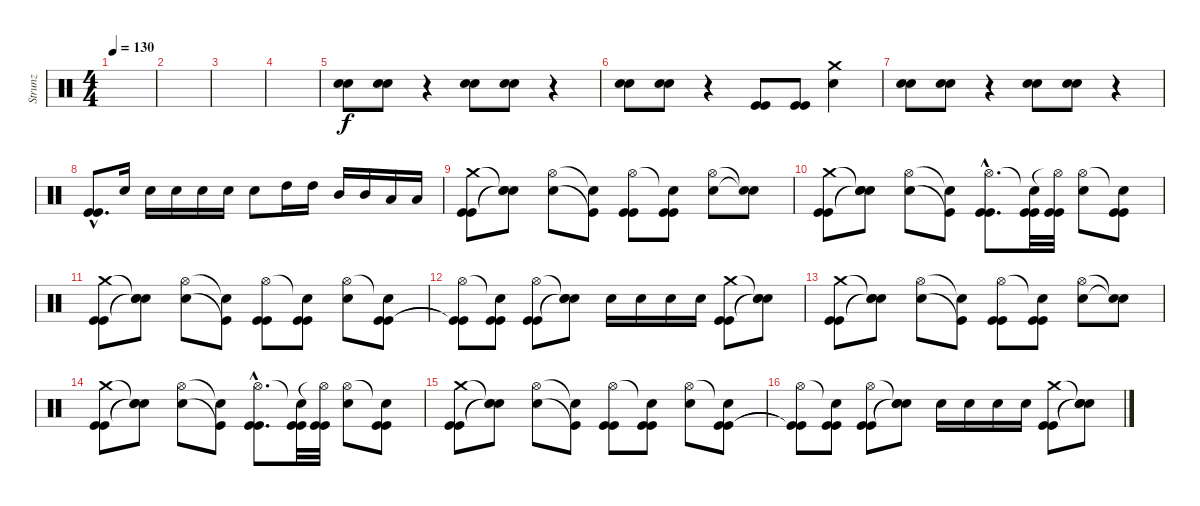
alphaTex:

\track ("Strunz" "Strunz") {instrument percussion}
\staff {score}
\articulation defaults
\ts (4 4)
\tempo 130
\clef neutral
\ks c
|
|
|
|
("Electric Snare (hit)" "Electric Snare (hit)").8 ("Electric Snare (hit)" "Electric Snare (hit)").8 r.4 ("Electric Snare (hit)" "Electric Snare (hit)").8 ("Electric Snare (hit)" "Electric Snare (hit)").8 r.4 |
("Electric Snare (hit)" "Electric Snare (hit)").8 ("Electric Snare (hit)" "Electric Snare (hit)").8 r.4 ("Kick (hit)" "Kick (hit)").8 ("Kick (hit)" "Kick (hit)").8 ("Crash medium (hit)" "Electric Snare (hit)").4 |
("Electric Snare (hit)" "Electric Snare (hit)").8 ("Electric Snare (hit)" "Electric Snare (hit)").8 r.4 ("Electric Snare (hit)" "Electric Snare (hit)").8 ("Electric Snare (hit)" "Electric Snare (hit)").8 r.4 |
("Kick (hit)"{hac} "Kick (hit)"{hac}).8{d} "Electric Snare (hit)".16 "Electric Snare (hit)".16 "Electric Snare (hit)".16 "Electric Snare (hit)".16 "Electric Snare (hit)".16 "Electric Snare (hit)".8 "High Tom (hit)".16 "High Tom (hit)".16 "Mid Tom (hit)".16 "Mid Tom (hit)".16 "Low Tom (hit)".16 "Low Tom (hit)".16 |
("Crash medium (hit)" "Kick (hit)" "Kick (hit)").8 ("Snare (hit)"{t} "Electric Snare (hit)"{t} "Snare (hit)"{t}).8 ("Hi-Hat (open)" "Electric Snare (hit)").8 ("Snare (hit)"{t} "Kick (hit)"{t}).8 ("Hi-Hat (open)" "Kick (hit)" "Kick (hit)").8 ("Snare (hit)"{t} "Kick (hit)" "Kick (hit)").8 ("Hi-Hat (open)" "Electric Snare (hit)").8 ("Snare (hit)"{t} "Snare (hit)"{t}).8 |
("Crash medium (hit)" "Kick (hit)" "Kick (hit)").8 ("Snare (hit)"{t} "Electric Snare (hit)"{t} "Snare (hit)"{t}).8 ("Hi-Hat (open)" "Electric Snare (hit)").8 ("Snare (hit)"{t} "Kick (hit)"{t}).8 ("Hi-Hat (open)"{hac} "Kick (hit)"{hac} "Kick (hit)"{hac}).8{d} ("Snare (hit)"{t} "Kick (hit)" "Kick (hit)").32 ("Hi-Hat (open)"{t} "Kick (hit)" "Kick (hit)").32 ("Hi-Hat (open)" "Electric Snare (hit)").8 ("Snare (hit)"{t} "Kick (hit)" "Kick (hit)").8 |
("Crash medium (hit)" "Kick (hit)" "Kick (hit)").8 ("Snare (hit)"{t} "Electric Snare (hit)"{t} "Snare (hit)"{t}).8 ("Hi-Hat (open)" "Electric Snare (hit)").8 ("Snare (hit)"{t} "Kick (hit)"{t}).8 ("Hi-Hat (open)" "Kick (hit)" "Kick (hit)").8 ("Snare (hit)"{t} "Kick (hit)" "Kick (hit)").8 ("Hi-Hat (open)" "Electric Snare (hit)").8 ("Snare (hit)"{t} "Kick (hit)" "Kick (hit)").8 |
("Hi-Hat (open)" "Kick (hit)"{t} "Kick (hit)"{t}).8 ("Snare (hit)"{t} "Kick (hit)" "Kick (hit)").8 ("Hi-Hat (open)" "Kick (hit)" "Kick (hit)").8 ("Snare (hit)"{t} "Snare (hit)"{t} "Snare (hit)"{t}).8 "Electric Snare (hit)".16 "Electric Snare (hit)".16 "Electric Snare (hit)".16 "Electric Snare (hit)".16 ("Crash medium (hit)" "Kick (hit)" "Kick (hit)").8 ("Snare (hit)"{t} "Snare (hit)"{t} "Snare (hit)"{t}).8 |
("Crash medium (hit)" "Kick (hit)" "Kick (hit)").8 ("Snare (hit)"{t} "Electric Snare (hit)"{t} "Snare (hit)"{t}).8 ("Hi-Hat (open)" "Electric Snare (hit)").8 ("Snare (hit)"{t} "Kick (hit)"{t}).8 ("Hi-Hat (open)" "Kick (hit)" "Kick (hit)").8 ("Snare (hit)"{t} "Kick (hit)" "Kick (hit)").8 ("Hi-Hat (open)" "Electric Snare (hit)").8 ("Snare (hit)"{t} "Snare (hit)"{t}).8 |
("Crash medium (hit)" "Kick (hit)" "Kick (hit)").8 ("Snare (hit)"{t} "Electric Snare (hit)"{t} "Snare (hit)"{t}).8 ("Hi-Hat (open)" "Electric Snare (hit)").8 ("Snare (hit)"{t} "Kick (hit)"{t}).8 ("Hi-Hat (open)"{hac} "Kick (hit)"{hac} "Kick (hit)"{hac}).8{d} ("Snare (hit)"{t} "Kick (hit)" "Kick (hit)").32 ("Hi-Hat (open)"{t} "Kick (hit)" "Kick (hit)").32 ("Hi-Hat (open)" "Electric Snare (hit)").8 ("Snare (hit)"{t} "Kick (hit)" "Kick (hit)").8 |
("Crash medium (hit)" "Kick (hit)" "Kick (hit)").8 ("Snare (hit)"{t} "Electric Snare (hit)"{t} "Snare (hit)"{t}).8 ("Hi-Hat (open)" "Electric Snare (hit)").8 ("Snare (hit)"{t} "Kick (hit)"{t}).8 ("Hi-Hat (open)" "Kick (hit)" "Kick (hit)").8 ("Snare (hit)"{t} "Kick (hit)" "Kick (hit)").8 ("Hi-Hat (open)" "Electric Snare (hit)").8 ("Snare (hit)"{t} "Kick (hit)" "Kick (hit)").8 |
("Hi-Hat (open)" "Kick (hit)"{t} "Kick (hit)"{t}).8 ("Snare (hit)"{t} "Kick (hit)" "Kick (hit)").8 ("Hi-Hat (open)" "Kick (hit)" "Kick (hit)").8 ("Snare (hit)"{t} "Snare (hit)"{t} "Snare (hit)"{t}).8 "Electric Snare (hit)".16 "Electric Snare (hit)".16 "Electric Snare (hit)".16 "Electric Snare (hit)".16 ("Crash medium (hit)" "Kick (hit)" "Kick (hit)").8 ("Snare (hit)"{t} "Snare (hit)"{t} "Snare (hit)"{t}).8
